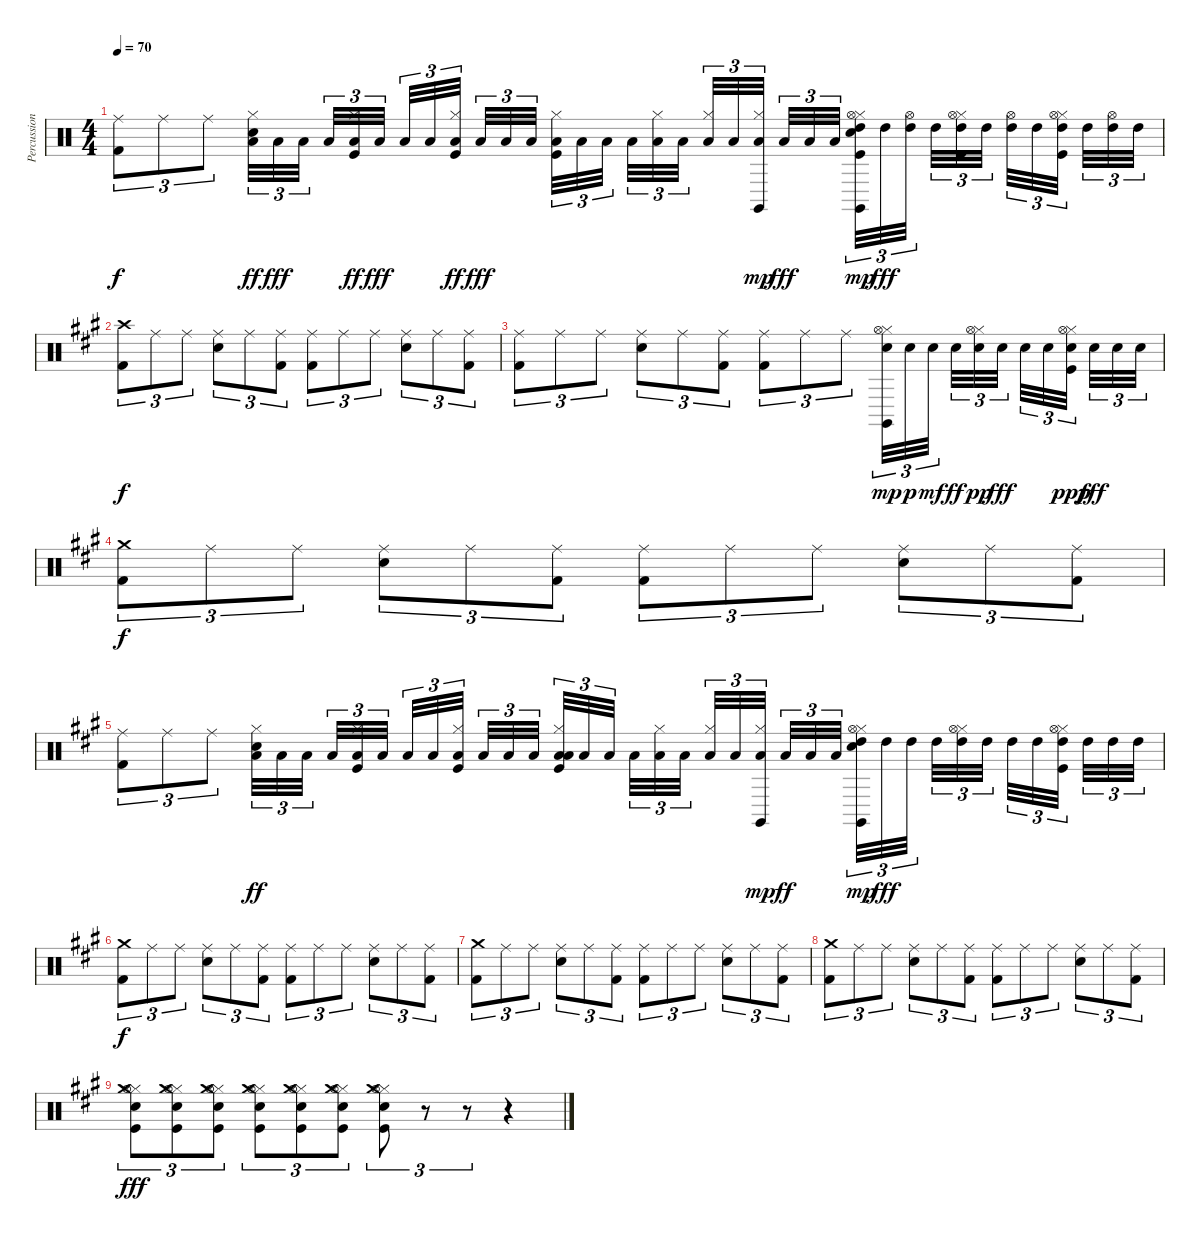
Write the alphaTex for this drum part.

\track ("Percussion" "Percussion") {instrument percussion}
\staff {score}
\articulation defaults
\ts (4 4)
\tempo 70
\clef neutral
\ks aminor
("Ride (middle)" "Kick (hit) 2").8{tu (3 2) dy f} "Ride (middle)".8{tu (3 2)} "Ride (middle)".8{tu (3 2)} ("Electric Snare (hit)" "Low Floor Tom (hit)" "Hi-Hat (closed)").32{tu (3 2) dy ff} "Low Floor Tom (hit)".32{tu (3 2) dy fff} "Low Floor Tom (hit)".32{tu (3 2) beam splitsecondary} "Low Floor Tom (hit)".32{tu (3 2)} ("Kick (hit)" "Low Floor Tom (hit)" "Hi-Hat (closed)").32{tu (3 2) dy ff} "Low Floor Tom (hit)".32{tu (3 2) dy fff beam splitsecondary} "Low Floor Tom (hit)".32{tu (3 2)} "Low Floor Tom (hit)".32{tu (3 2)} ("Kick (hit)" "Low Floor Tom (hit)" "Hi-Hat (closed)").32{tu (3 2) dy ff beam splitsecondary} "Low Floor Tom (hit)".32{tu (3 2) dy fff} "Low Floor Tom (hit)".32{tu (3 2)} "Low Floor Tom (hit)".32{tu (3 2)} ("Kick (hit)" "Hi-Hat (closed)" "Low Tom (hit)").32{tu (3 2)} "Low Tom (hit)".32{tu (3 2)} "Low Tom (hit)".32{tu (3 2) beam splitsecondary} "Low Tom (hit)".32{tu (3 2)} ("Hi-Hat (closed)" "Low Tom (hit)").32{tu (3 2)} "Low Tom (hit)".32{tu (3 2) beam splitsecondary} ("Hi-Hat (closed)" "Low Tom (hit)").32{tu (3 2)} "Low Tom (hit)".32{tu (3 2)} ("Hi-Hat (closed)" "Low Tom (hit)" "Claves (hit)").32{tu (3 2) dy mp beam splitsecondary} "Low Tom (hit)".32{tu (3 2) dy fff} "Low Tom (hit)".32{tu (3 2)} "Low Tom (hit)".32{tu (3 2)} ("Kick (hit)" "Electric Snare (hit)" "Hi-Hat (closed)" "Hi-Hat (open)" "High Tom (hit)" "Claves (hit)").32{tu (3 2) dy mp} "High Tom (hit)".32{tu (3 2) dy fff} ("Hi-Hat (open)" "High Tom (hit)").32{tu (3 2) beam splitsecondary} "High Tom (hit)".32{tu (3 2)} ("Kick (hit)" "Hi-Hat (closed)" "Hi-Hat (open)" "High Tom (hit)").32{tu (3 2)} "High Tom (hit)".32{tu (3 2) beam splitsecondary} ("Hi-Hat (open)" "High Tom (hit)").32{tu (3 2)} "High Tom (hit)".32{tu (3 2)} ("Kick (hit)" "Hi-Hat (closed)" "Hi-Hat (open)" "High Tom (hit)").32{tu (3 2) beam splitsecondary} "High Tom (hit)".32{tu (3 2)} ("Hi-Hat (open)" "High Tom (hit)").32{tu (3 2)} "High Tom (hit)".32{tu (3 2)} |
\ks a
("Crash high (hit)" "Kick (hit) 2").8{tu (3 2) dy f} "Ride (middle)".8{tu (3 2)} "Ride (middle)".8{tu (3 2)} ("Snare (hit) 2" "Ride (middle)").8{tu (3 2)} "Ride (middle)".8{tu (3 2)} ("Ride (middle)" "Kick (hit) 2").8{tu (3 2)} ("Ride (middle)" "Kick (hit) 2").8{tu (3 2)} "Ride (middle)".8{tu (3 2)} "Ride (middle)".8{tu (3 2)} ("Snare (hit) 2" "Ride (middle)").8{tu (3 2)} "Ride (middle)".8{tu (3 2)} ("Ride (middle)" "Kick (hit) 2").8{tu (3 2)} |
("Ride (middle)" "Kick (hit) 2").8{tu (3 2)} "Ride (middle)".8{tu (3 2)} "Ride (middle)".8{tu (3 2)} ("Snare (hit) 2" "Ride (middle)").8{tu (3 2)} "Ride (middle)".8{tu (3 2)} ("Ride (middle)" "Kick (hit) 2").8{tu (3 2)} ("Ride (middle)" "Kick (hit) 2").8{tu (3 2)} "Ride (middle)".8{tu (3 2)} "Ride (middle)".8{tu (3 2)} ("Electric Snare (hit)" "Hi-Hat (closed)" "Hi-Hat (open)" "Claves (hit)").32{tu (3 2) dy mp} "Electric Snare (hit)".32{tu (3 2) dy p} "Electric Snare (hit)".32{tu (3 2) dy mf beam splitsecondary} "Electric Snare (hit)".32{tu (3 2) dy ff} ("Electric Snare (hit)" "Hi-Hat (closed)" "Hi-Hat (open)").32{tu (3 2) dy pp} "Electric Snare (hit)".32{tu (3 2) dy fff beam splitsecondary} "Electric Snare (hit)".32{tu (3 2)} "Electric Snare (hit)".32{tu (3 2)} ("Kick (hit)" "Electric Snare (hit)" "Hi-Hat (closed)" "Hi-Hat (open)").32{tu (3 2) dy ppp beam splitsecondary} "Electric Snare (hit)".32{tu (3 2) dy fff} "Electric Snare (hit)".32{tu (3 2)} "Electric Snare (hit)".32{tu (3 2)} |
("Crash medium (hit)" "Kick (hit) 2").8{tu (3 2) dy f} "Ride (middle)".8{tu (3 2)} "Ride (middle)".8{tu (3 2)} ("Snare (hit) 2" "Ride (middle)").8{tu (3 2)} "Ride (middle)".8{tu (3 2)} ("Ride (middle)" "Kick (hit) 2").8{tu (3 2)} ("Ride (middle)" "Kick (hit) 2").8{tu (3 2)} "Ride (middle)".8{tu (3 2)} "Ride (middle)".8{tu (3 2)} ("Snare (hit) 2" "Ride (middle)").8{tu (3 2)} "Ride (middle)".8{tu (3 2)} ("Ride (middle)" "Kick (hit) 2").8{tu (3 2)} |
("Ride (middle)" "Kick (hit) 2").8{tu (3 2)} "Ride (middle)".8{tu (3 2)} "Ride (middle)".8{tu (3 2)} ("Electric Snare (hit)" "Low Floor Tom (hit)" "Hi-Hat (closed)").32{tu (3 2) dy ff} "Low Floor Tom (hit)".32{tu (3 2)} "Low Floor Tom (hit)".32{tu (3 2) beam splitsecondary} "Low Floor Tom (hit)".32{tu (3 2)} ("Kick (hit)" "Low Floor Tom (hit)" "Hi-Hat (closed)").32{tu (3 2)} "Low Floor Tom (hit)".32{tu (3 2) beam splitsecondary} "Low Floor Tom (hit)".32{tu (3 2)} "Low Floor Tom (hit)".32{tu (3 2)} ("Kick (hit)" "Low Floor Tom (hit)" "Hi-Hat (closed)").32{tu (3 2) beam splitsecondary} "Low Floor Tom (hit)".32{tu (3 2)} "Low Floor Tom (hit)".32{tu (3 2)} "Low Floor Tom (hit)".32{tu (3 2)} ("Kick (hit)" "Low Floor Tom (hit)" "Hi-Hat (closed)" "Low Tom (hit)").32{tu (3 2)} "Low Tom (hit)".32{tu (3 2)} "Low Tom (hit)".32{tu (3 2) beam splitsecondary} "Low Tom (hit)".32{tu (3 2)} ("Hi-Hat (closed)" "Low Tom (hit)").32{tu (3 2)} "Low Tom (hit)".32{tu (3 2) beam splitsecondary} ("Hi-Hat (closed)" "Low Tom (hit)").32{tu (3 2)} "Low Tom (hit)".32{tu (3 2)} ("Hi-Hat (closed)" "Low Tom (hit)" "Claves (hit)").32{tu (3 2) dy mp beam splitsecondary} "Low Tom (hit)".32{tu (3 2) dy ff} "Low Tom (hit)".32{tu (3 2)} "Low Tom (hit)".32{tu (3 2)} ("Electric Snare (hit)" "Hi-Hat (closed)" "Hi-Hat (open)" "High Tom (hit)" "Claves (hit)").32{tu (3 2) dy mp} "High Tom (hit)".32{tu (3 2) dy fff} "High Tom (hit)".32{tu (3 2) beam splitsecondary} "High Tom (hit)".32{tu (3 2)} ("Hi-Hat (closed)" "Hi-Hat (open)" "High Tom (hit)").32{tu (3 2)} "High Tom (hit)".32{tu (3 2) beam splitsecondary} "High Tom (hit)".32{tu (3 2)} "High Tom (hit)".32{tu (3 2)} ("Kick (hit)" "Hi-Hat (closed)" "Hi-Hat (open)" "High Tom (hit)").32{tu (3 2) beam splitsecondary} "High Tom (hit)".32{tu (3 2)} "High Tom (hit)".32{tu (3 2)} "High Tom (hit)".32{tu (3 2)} |
("Crash medium (hit)" "Kick (hit) 2").8{tu (3 2) dy f} "Ride (middle)".8{tu (3 2)} "Ride (middle)".8{tu (3 2)} ("Snare (hit) 2" "Ride (middle)").8{tu (3 2)} "Ride (middle)".8{tu (3 2)} ("Ride (middle)" "Kick (hit) 2").8{tu (3 2)} ("Ride (middle)" "Kick (hit) 2").8{tu (3 2)} "Ride (middle)".8{tu (3 2)} "Ride (middle)".8{tu (3 2)} ("Snare (hit) 2" "Ride (middle)").8{tu (3 2)} "Ride (middle)".8{tu (3 2)} ("Ride (middle)" "Kick (hit) 2").8{tu (3 2)} |
("Crash medium (hit)" "Kick (hit) 2").8{tu (3 2)} "Ride (middle)".8{tu (3 2)} "Ride (middle)".8{tu (3 2)} ("Snare (hit) 2" "Ride (middle)").8{tu (3 2)} "Ride (middle)".8{tu (3 2)} ("Ride (middle)" "Kick (hit) 2").8{tu (3 2)} ("Ride (middle)" "Kick (hit) 2").8{tu (3 2)} "Ride (middle)".8{tu (3 2)} "Ride (middle)".8{tu (3 2)} ("Snare (hit) 2" "Ride (middle)").8{tu (3 2)} "Ride (middle)".8{tu (3 2)} ("Ride (middle)" "Kick (hit) 2").8{tu (3 2)} |
("Crash medium (hit)" "Kick (hit) 2").8{tu (3 2)} "Ride (middle)".8{tu (3 2)} "Ride (middle)".8{tu (3 2)} ("Snare (hit) 2" "Ride (middle)").8{tu (3 2)} "Ride (middle)".8{tu (3 2)} ("Ride (middle)" "Kick (hit) 2").8{tu (3 2)} ("Ride (middle)" "Kick (hit) 2").8{tu (3 2)} "Ride (middle)".8{tu (3 2)} "Ride (middle)".8{tu (3 2)} ("Snare (hit) 2" "Ride (middle)").8{tu (3 2)} "Ride (middle)".8{tu (3 2)} ("Ride (middle)" "Kick (hit) 2").8{tu (3 2)} |
("Kick (hit)" "Electric Snare (hit)" "Hi-Hat (closed)" "Hi-Hat (open)" "Crash medium (hit)").8{tu (3 2) dy fff} ("Kick (hit)" "Electric Snare (hit)" "Hi-Hat (closed)" "Hi-Hat (open)" "Crash medium (hit)").8{tu (3 2)} ("Kick (hit)" "Electric Snare (hit)" "Hi-Hat (closed)" "Hi-Hat (open)" "Crash medium (hit)").8{tu (3 2)} ("Kick (hit)" "Electric Snare (hit)" "Hi-Hat (closed)" "Hi-Hat (open)" "Crash medium (hit)").8{tu (3 2)} ("Kick (hit)" "Electric Snare (hit)" "Hi-Hat (closed)" "Hi-Hat (open)" "Crash medium (hit)").8{tu (3 2)} ("Kick (hit)" "Electric Snare (hit)" "Hi-Hat (closed)" "Hi-Hat (open)" "Crash medium (hit)").8{tu (3 2)} ("Kick (hit)" "Electric Snare (hit)" "Hi-Hat (closed)" "Hi-Hat (open)" "Crash medium (hit)").8{tu (3 2)} r.8{tu (3 2)} r.8{tu (3 2)} r.4
